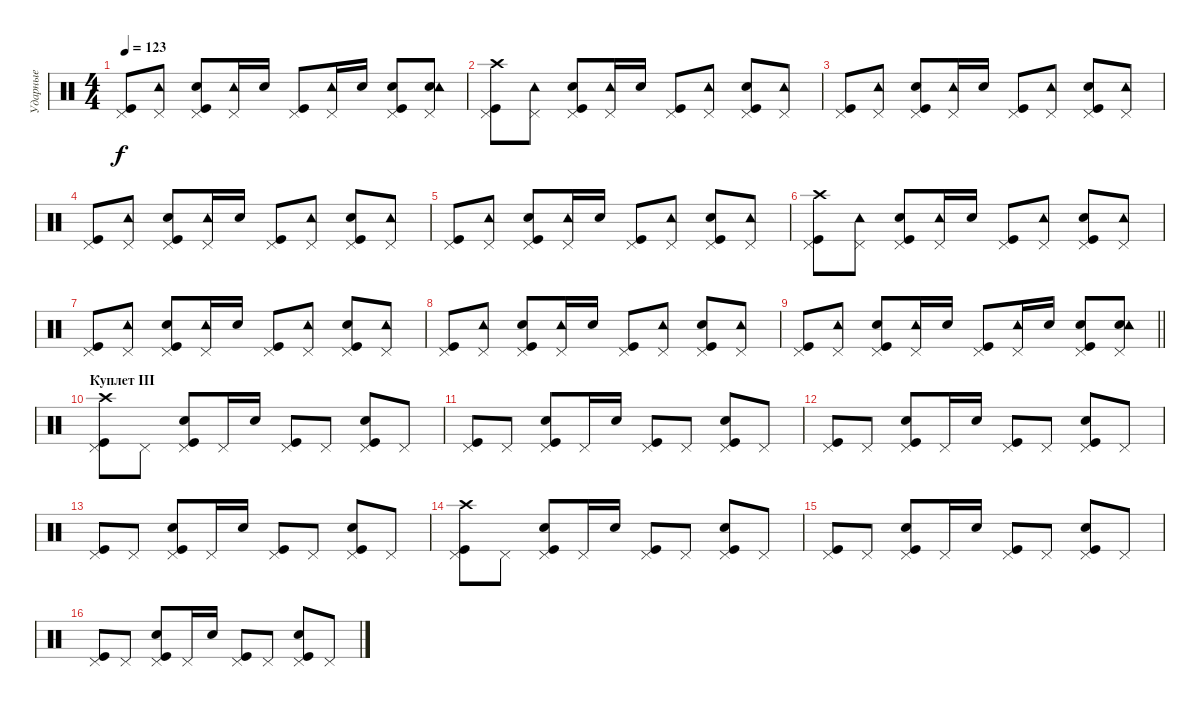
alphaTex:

\track ("Ударные" "Ударные") {instrument percussion}
\staff {score}
\articulation defaults
\ts (4 4)
\tempo 123
\clef neutral
\ks c
("Kick (hit)" "Pedal Hi-Hat (hit)").8{dy f} ("Pedal Hi-Hat (hit)" "Tambourine (hit)").8 ("Kick (hit)" "Pedal Hi-Hat (hit)" "Snare (hit) 2").8 ("Pedal Hi-Hat (hit)" "Tambourine (hit)").16 "Snare (hit) 2".16 ("Kick (hit)" "Pedal Hi-Hat (hit)").8 ("Pedal Hi-Hat (hit)" "Tambourine (hit)").16 "Snare (hit) 2".16 ("Kick (hit)" "Pedal Hi-Hat (hit)" "Snare (hit) 2").8 ("Pedal Hi-Hat (hit)" "Snare (hit) 2" "Tambourine (hit)").8 |
("Kick (hit)" "Pedal Hi-Hat (hit)" "Crash high (hit)").8 ("Pedal Hi-Hat (hit)" "Tambourine (hit)").8 ("Kick (hit)" "Pedal Hi-Hat (hit)" "Snare (hit) 2").8 ("Pedal Hi-Hat (hit)" "Tambourine (hit)").16 "Snare (hit) 2".16 ("Kick (hit)" "Pedal Hi-Hat (hit)").8 ("Pedal Hi-Hat (hit)" "Tambourine (hit)").8 ("Kick (hit)" "Pedal Hi-Hat (hit)" "Snare (hit) 2").8 ("Pedal Hi-Hat (hit)" "Tambourine (hit)").8 |
("Kick (hit)" "Pedal Hi-Hat (hit)").8 ("Pedal Hi-Hat (hit)" "Tambourine (hit)").8 ("Kick (hit)" "Pedal Hi-Hat (hit)" "Snare (hit) 2").8 ("Pedal Hi-Hat (hit)" "Tambourine (hit)").16 "Snare (hit) 2".16 ("Kick (hit)" "Pedal Hi-Hat (hit)").8 ("Pedal Hi-Hat (hit)" "Tambourine (hit)").8 ("Kick (hit)" "Pedal Hi-Hat (hit)" "Snare (hit) 2").8 ("Pedal Hi-Hat (hit)" "Tambourine (hit)").8 |
("Kick (hit)" "Pedal Hi-Hat (hit)").8 ("Pedal Hi-Hat (hit)" "Tambourine (hit)").8 ("Kick (hit)" "Pedal Hi-Hat (hit)" "Snare (hit) 2").8 ("Pedal Hi-Hat (hit)" "Tambourine (hit)").16 "Snare (hit) 2".16 ("Kick (hit)" "Pedal Hi-Hat (hit)").8 ("Pedal Hi-Hat (hit)" "Tambourine (hit)").8 ("Kick (hit)" "Pedal Hi-Hat (hit)" "Snare (hit) 2").8 ("Pedal Hi-Hat (hit)" "Tambourine (hit)").8 |
("Kick (hit)" "Pedal Hi-Hat (hit)").8 ("Pedal Hi-Hat (hit)" "Tambourine (hit)").8 ("Kick (hit)" "Pedal Hi-Hat (hit)" "Snare (hit) 2").8 ("Pedal Hi-Hat (hit)" "Tambourine (hit)").16 "Snare (hit) 2".16 ("Kick (hit)" "Pedal Hi-Hat (hit)").8 ("Pedal Hi-Hat (hit)" "Tambourine (hit)").8 ("Kick (hit)" "Pedal Hi-Hat (hit)" "Snare (hit) 2").8 ("Pedal Hi-Hat (hit)" "Tambourine (hit)").8 |
("Kick (hit)" "Pedal Hi-Hat (hit)" "Crash high (hit)").8 ("Pedal Hi-Hat (hit)" "Tambourine (hit)").8 ("Kick (hit)" "Pedal Hi-Hat (hit)" "Snare (hit) 2").8 ("Pedal Hi-Hat (hit)" "Tambourine (hit)").16 "Snare (hit) 2".16 ("Kick (hit)" "Pedal Hi-Hat (hit)").8 ("Pedal Hi-Hat (hit)" "Tambourine (hit)").8 ("Kick (hit)" "Pedal Hi-Hat (hit)" "Snare (hit) 2").8 ("Pedal Hi-Hat (hit)" "Tambourine (hit)").8 |
("Kick (hit)" "Pedal Hi-Hat (hit)").8 ("Pedal Hi-Hat (hit)" "Tambourine (hit)").8 ("Kick (hit)" "Pedal Hi-Hat (hit)" "Snare (hit) 2").8 ("Pedal Hi-Hat (hit)" "Tambourine (hit)").16 "Snare (hit) 2".16 ("Kick (hit)" "Pedal Hi-Hat (hit)").8 ("Pedal Hi-Hat (hit)" "Tambourine (hit)").8 ("Kick (hit)" "Pedal Hi-Hat (hit)" "Snare (hit) 2").8 ("Pedal Hi-Hat (hit)" "Tambourine (hit)").8 |
("Kick (hit)" "Pedal Hi-Hat (hit)").8 ("Pedal Hi-Hat (hit)" "Tambourine (hit)").8 ("Kick (hit)" "Pedal Hi-Hat (hit)" "Snare (hit) 2").8 ("Pedal Hi-Hat (hit)" "Tambourine (hit)").16 "Snare (hit) 2".16 ("Kick (hit)" "Pedal Hi-Hat (hit)").8 ("Pedal Hi-Hat (hit)" "Tambourine (hit)").8 ("Kick (hit)" "Pedal Hi-Hat (hit)" "Snare (hit) 2").8 ("Pedal Hi-Hat (hit)" "Tambourine (hit)").8 |
\barLineRight lightlight
("Kick (hit)" "Pedal Hi-Hat (hit)").8 ("Pedal Hi-Hat (hit)" "Tambourine (hit)").8 ("Kick (hit)" "Pedal Hi-Hat (hit)" "Snare (hit) 2").8 ("Pedal Hi-Hat (hit)" "Tambourine (hit)").16 "Snare (hit) 2".16 ("Kick (hit)" "Pedal Hi-Hat (hit)").8 ("Pedal Hi-Hat (hit)" "Tambourine (hit)").16 "Snare (hit) 2".16 ("Kick (hit)" "Pedal Hi-Hat (hit)" "Snare (hit) 2").8 ("Pedal Hi-Hat (hit)" "Snare (hit) 2" "Tambourine (hit)").8 |
\section ("" "Куплет III")
("Kick (hit)" "Pedal Hi-Hat (hit)" "Crash high (hit)").8 "Pedal Hi-Hat (hit)".8 ("Kick (hit)" "Pedal Hi-Hat (hit)" "Snare (hit) 2").8 "Pedal Hi-Hat (hit)".16 "Snare (hit) 2".16 ("Kick (hit)" "Pedal Hi-Hat (hit)").8 "Pedal Hi-Hat (hit)".8 ("Kick (hit)" "Pedal Hi-Hat (hit)" "Snare (hit) 2").8 "Pedal Hi-Hat (hit)".8 |
("Kick (hit)" "Pedal Hi-Hat (hit)").8 "Pedal Hi-Hat (hit)".8 ("Kick (hit)" "Pedal Hi-Hat (hit)" "Snare (hit) 2").8 "Pedal Hi-Hat (hit)".16 "Snare (hit) 2".16 ("Kick (hit)" "Pedal Hi-Hat (hit)").8 "Pedal Hi-Hat (hit)".8 ("Kick (hit)" "Pedal Hi-Hat (hit)" "Snare (hit) 2").8 "Pedal Hi-Hat (hit)".8 |
("Kick (hit)" "Pedal Hi-Hat (hit)").8 "Pedal Hi-Hat (hit)".8 ("Kick (hit)" "Pedal Hi-Hat (hit)" "Snare (hit) 2").8 "Pedal Hi-Hat (hit)".16 "Snare (hit) 2".16 ("Kick (hit)" "Pedal Hi-Hat (hit)").8 "Pedal Hi-Hat (hit)".8 ("Kick (hit)" "Pedal Hi-Hat (hit)" "Snare (hit) 2").8 "Pedal Hi-Hat (hit)".8 |
("Kick (hit)" "Pedal Hi-Hat (hit)").8 "Pedal Hi-Hat (hit)".8 ("Kick (hit)" "Pedal Hi-Hat (hit)" "Snare (hit) 2").8 "Pedal Hi-Hat (hit)".16 "Snare (hit) 2".16 ("Kick (hit)" "Pedal Hi-Hat (hit)").8 "Pedal Hi-Hat (hit)".8 ("Kick (hit)" "Pedal Hi-Hat (hit)" "Snare (hit) 2").8 "Pedal Hi-Hat (hit)".8 |
("Kick (hit)" "Pedal Hi-Hat (hit)" "Crash high (hit)").8 "Pedal Hi-Hat (hit)".8 ("Kick (hit)" "Pedal Hi-Hat (hit)" "Snare (hit) 2").8 "Pedal Hi-Hat (hit)".16 "Snare (hit) 2".16 ("Kick (hit)" "Pedal Hi-Hat (hit)").8 "Pedal Hi-Hat (hit)".8 ("Kick (hit)" "Pedal Hi-Hat (hit)" "Snare (hit) 2").8 "Pedal Hi-Hat (hit)".8 |
("Kick (hit)" "Pedal Hi-Hat (hit)").8 "Pedal Hi-Hat (hit)".8 ("Kick (hit)" "Pedal Hi-Hat (hit)" "Snare (hit) 2").8 "Pedal Hi-Hat (hit)".16 "Snare (hit) 2".16 ("Kick (hit)" "Pedal Hi-Hat (hit)").8 "Pedal Hi-Hat (hit)".8 ("Kick (hit)" "Pedal Hi-Hat (hit)" "Snare (hit) 2").8 "Pedal Hi-Hat (hit)".8 |
("Kick (hit)" "Pedal Hi-Hat (hit)").8 "Pedal Hi-Hat (hit)".8 ("Kick (hit)" "Pedal Hi-Hat (hit)" "Snare (hit) 2").8 "Pedal Hi-Hat (hit)".16 "Snare (hit) 2".16 ("Kick (hit)" "Pedal Hi-Hat (hit)").8 "Pedal Hi-Hat (hit)".8 ("Kick (hit)" "Pedal Hi-Hat (hit)" "Snare (hit) 2").8 "Pedal Hi-Hat (hit)".8
